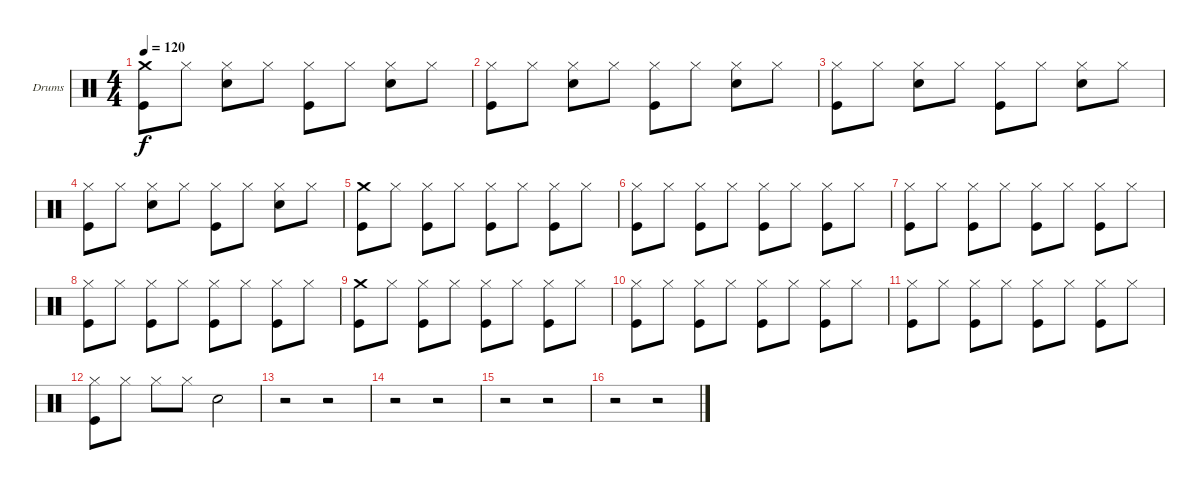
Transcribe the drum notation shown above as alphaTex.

\bracketExtendMode groupsimilarinstruments
\firstSystemTrackNameOrientation horizontal
\otherSystemsTrackNameOrientation horizontal
\track ("Drumkit" "Drums") {instrument percussion}
\staff {score}
\articulation defaults
\ts (4 4)
\tempo 120
\clef neutral
\ks c
("Crash medium (hit)" "Kick (hit)").8{dy f} "Hi-Hat (closed)".8 ("Hi-Hat (closed)" "Snare (hit) 2").8 "Hi-Hat (closed)".8 ("Hi-Hat (closed)" "Kick (hit)").8 "Hi-Hat (closed)".8 ("Hi-Hat (closed)" "Snare (hit) 2").8 "Hi-Hat (closed)".8 |
("Hi-Hat (closed)" "Kick (hit)").8 "Hi-Hat (closed)".8 ("Hi-Hat (closed)" "Snare (hit) 2").8 "Hi-Hat (closed)".8 ("Hi-Hat (closed)" "Kick (hit)").8 "Hi-Hat (closed)".8 ("Hi-Hat (closed)" "Snare (hit) 2").8 "Hi-Hat (closed)".8 |
("Hi-Hat (closed)" "Kick (hit)").8 "Hi-Hat (closed)".8 ("Hi-Hat (closed)" "Snare (hit) 2").8 "Hi-Hat (closed)".8 ("Hi-Hat (closed)" "Kick (hit)").8 "Hi-Hat (closed)".8 ("Hi-Hat (closed)" "Snare (hit) 2").8 "Hi-Hat (closed)".8 |
("Hi-Hat (closed)" "Kick (hit)").8 "Hi-Hat (closed)".8 ("Hi-Hat (closed)" "Snare (hit) 2").8 "Hi-Hat (closed)".8 ("Hi-Hat (closed)" "Kick (hit)").8 "Hi-Hat (closed)".8 ("Hi-Hat (closed)" "Snare (hit) 2").8 "Hi-Hat (closed)".8 |
("Crash medium (hit)" "Kick (hit)").8 "Hi-Hat (closed)".8 ("Hi-Hat (closed)" "Kick (hit)").8 "Hi-Hat (closed)".8 ("Hi-Hat (closed)" "Kick (hit)").8 "Hi-Hat (closed)".8 ("Hi-Hat (closed)" "Kick (hit)").8 "Hi-Hat (closed)".8 |
("Hi-Hat (closed)" "Kick (hit)").8 "Hi-Hat (closed)".8 ("Hi-Hat (closed)" "Kick (hit)").8 "Hi-Hat (closed)".8 ("Hi-Hat (closed)" "Kick (hit)").8 "Hi-Hat (closed)".8 ("Hi-Hat (closed)" "Kick (hit)").8 "Hi-Hat (closed)".8 |
("Hi-Hat (closed)" "Kick (hit)").8 "Hi-Hat (closed)".8 ("Hi-Hat (closed)" "Kick (hit)").8 "Hi-Hat (closed)".8 ("Hi-Hat (closed)" "Kick (hit)").8 "Hi-Hat (closed)".8 ("Hi-Hat (closed)" "Kick (hit)").8 "Hi-Hat (closed)".8 |
("Hi-Hat (closed)" "Kick (hit)").8 "Hi-Hat (closed)".8 ("Hi-Hat (closed)" "Kick (hit)").8 "Hi-Hat (closed)".8 ("Hi-Hat (closed)" "Kick (hit)").8 "Hi-Hat (closed)".8 ("Hi-Hat (closed)" "Kick (hit)").8 "Hi-Hat (closed)".8 |
("Crash medium (hit)" "Kick (hit)").8 "Hi-Hat (closed)".8 ("Hi-Hat (closed)" "Kick (hit)").8 "Hi-Hat (closed)".8 ("Hi-Hat (closed)" "Kick (hit)").8 "Hi-Hat (closed)".8 ("Hi-Hat (closed)" "Kick (hit)").8 "Hi-Hat (closed)".8 |
("Hi-Hat (closed)" "Kick (hit)").8 "Hi-Hat (closed)".8 ("Hi-Hat (closed)" "Kick (hit)").8 "Hi-Hat (closed)".8 ("Hi-Hat (closed)" "Kick (hit)").8 "Hi-Hat (closed)".8 ("Hi-Hat (closed)" "Kick (hit)").8 "Hi-Hat (closed)".8 |
("Hi-Hat (closed)" "Kick (hit)").8 "Hi-Hat (closed)".8 ("Hi-Hat (closed)" "Kick (hit)").8 "Hi-Hat (closed)".8 ("Hi-Hat (closed)" "Kick (hit)").8 "Hi-Hat (closed)".8 ("Hi-Hat (closed)" "Kick (hit)").8 "Hi-Hat (closed)".8 |
("Hi-Hat (closed)" "Kick (hit)").8 "Hi-Hat (closed)".8 "Hi-Hat (closed)".8 "Hi-Hat (closed)".8 "Snare (hit) 2".2 |
r.2 r.2 |
r.2 r.2 |
r.2 r.2 |
r.2 r.2
